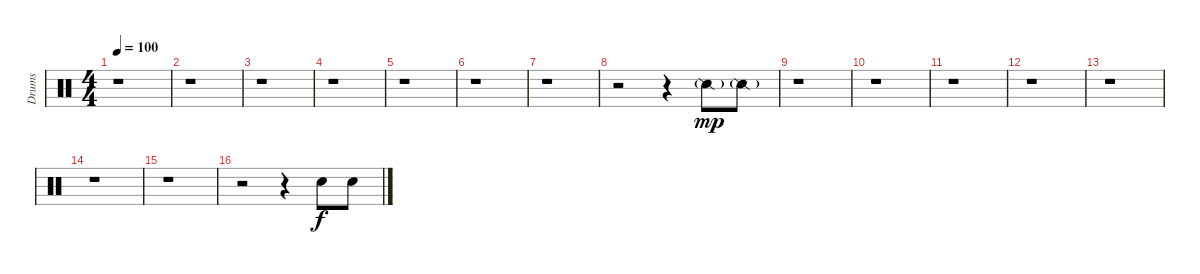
\track ("Drums" "Drums") {instrument percussion}
\staff {score}
\articulation defaults
\ts (4 4)
\tempo 100
\clef neutral
\ks c
r.1{dy f} |
r.1 |
r.1 |
r.1 |
r.1 |
r.1 |
r.1 |
r.2 r.4 "Snare (side stick) 2"{g}.8{dy mp} "Snare (side stick) 2"{g}.8 |
r.1 |
r.1 |
r.1 |
r.1 |
r.1 |
r.1 |
r.1 |
r.2 r.4 "Electric Snare (hit)".8{dy f} "Electric Snare (hit)".8
